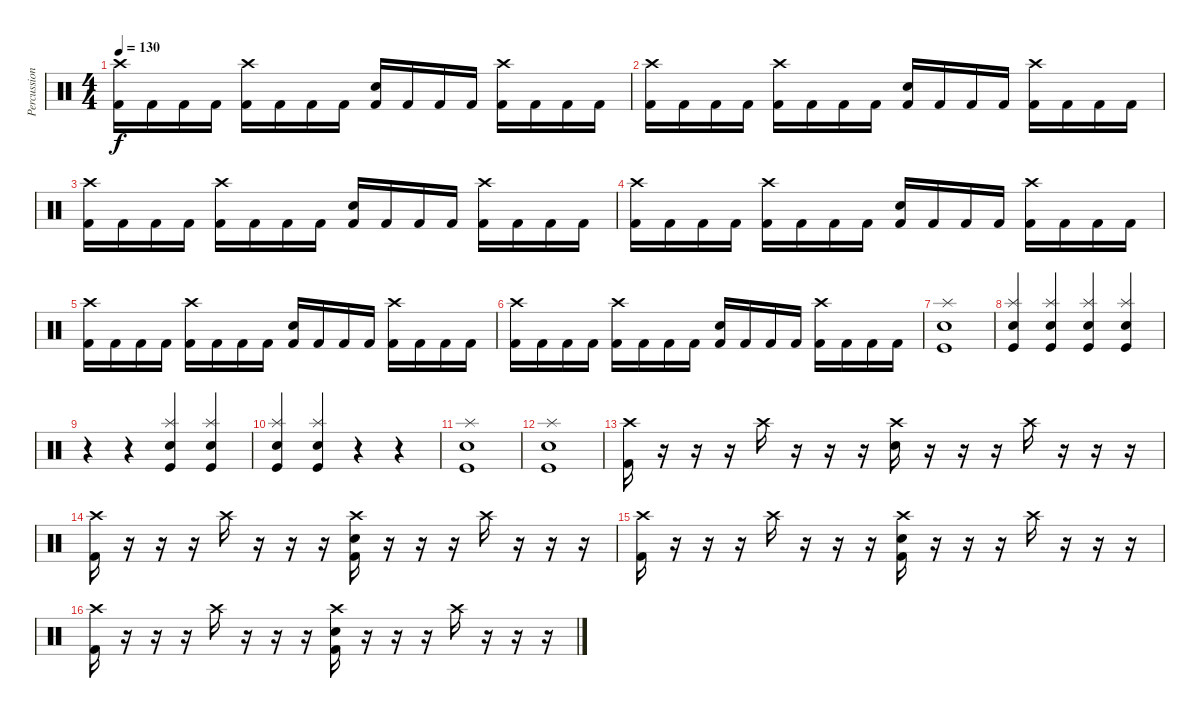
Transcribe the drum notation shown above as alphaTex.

\track ("Percussion" "Percussion") {instrument percussion}
\staff {score}
\articulation defaults
\ts (4 4)
\tempo 130
\clef neutral
\ks c
("Crash high (hit)" "Kick (hit) 2").16{dy f} "Kick (hit) 2".16 "Kick (hit) 2".16 "Kick (hit) 2".16 ("Crash high (hit)" "Kick (hit) 2").16 "Kick (hit) 2".16 "Kick (hit) 2".16 "Kick (hit) 2".16 ("Electric Snare (hit)" "Kick (hit) 2").16 "Kick (hit) 2".16 "Kick (hit) 2".16 "Kick (hit) 2".16 ("Crash high (hit)" "Kick (hit) 2").16 "Kick (hit) 2".16 "Kick (hit) 2".16 "Kick (hit) 2".16 |
("Crash high (hit)" "Kick (hit) 2").16 "Kick (hit) 2".16 "Kick (hit) 2".16 "Kick (hit) 2".16 ("Crash high (hit)" "Kick (hit) 2").16 "Kick (hit) 2".16 "Kick (hit) 2".16 "Kick (hit) 2".16 ("Electric Snare (hit)" "Kick (hit) 2").16 "Kick (hit) 2".16 "Kick (hit) 2".16 "Kick (hit) 2".16 ("Crash high (hit)" "Kick (hit) 2").16 "Kick (hit) 2".16 "Kick (hit) 2".16 "Kick (hit) 2".16 |
("Crash high (hit)" "Kick (hit) 2").16 "Kick (hit) 2".16 "Kick (hit) 2".16 "Kick (hit) 2".16 ("Crash high (hit)" "Kick (hit) 2").16 "Kick (hit) 2".16 "Kick (hit) 2".16 "Kick (hit) 2".16 ("Electric Snare (hit)" "Kick (hit) 2").16 "Kick (hit) 2".16 "Kick (hit) 2".16 "Kick (hit) 2".16 ("Crash high (hit)" "Kick (hit) 2").16 "Kick (hit) 2".16 "Kick (hit) 2".16 "Kick (hit) 2".16 |
("Crash high (hit)" "Kick (hit) 2").16 "Kick (hit) 2".16 "Kick (hit) 2".16 "Kick (hit) 2".16 ("Crash high (hit)" "Kick (hit) 2").16 "Kick (hit) 2".16 "Kick (hit) 2".16 "Kick (hit) 2".16 ("Electric Snare (hit)" "Kick (hit) 2").16 "Kick (hit) 2".16 "Kick (hit) 2".16 "Kick (hit) 2".16 ("Crash high (hit)" "Kick (hit) 2").16 "Kick (hit) 2".16 "Kick (hit) 2".16 "Kick (hit) 2".16 |
("Crash high (hit)" "Kick (hit) 2").16 "Kick (hit) 2".16 "Kick (hit) 2".16 "Kick (hit) 2".16 ("Crash high (hit)" "Kick (hit) 2").16 "Kick (hit) 2".16 "Kick (hit) 2".16 "Kick (hit) 2".16 ("Electric Snare (hit)" "Kick (hit) 2").16 "Kick (hit) 2".16 "Kick (hit) 2".16 "Kick (hit) 2".16 ("Crash high (hit)" "Kick (hit) 2").16 "Kick (hit) 2".16 "Kick (hit) 2".16 "Kick (hit) 2".16 |
("Crash high (hit)" "Kick (hit) 2").16 "Kick (hit) 2".16 "Kick (hit) 2".16 "Kick (hit) 2".16 ("Crash high (hit)" "Kick (hit) 2").16 "Kick (hit) 2".16 "Kick (hit) 2".16 "Kick (hit) 2".16 ("Electric Snare (hit)" "Kick (hit) 2").16 "Kick (hit) 2".16 "Kick (hit) 2".16 "Kick (hit) 2".16 ("Crash high (hit)" "Kick (hit) 2").16 "Kick (hit) 2".16 "Kick (hit) 2".16 "Kick (hit) 2".16 |
("Splash (hit)" "Electric Snare (hit)" "Kick (hit)").1 |
("Splash (hit)" "Electric Snare (hit)" "Kick (hit)").4 ("Splash (hit)" "Electric Snare (hit)" "Kick (hit)").4 ("Splash (hit)" "Electric Snare (hit)" "Kick (hit)").4 ("Splash (hit)" "Electric Snare (hit)" "Kick (hit)").4 |
r.4 r.4 ("Splash (hit)" "Electric Snare (hit)" "Kick (hit)").4 ("Splash (hit)" "Electric Snare (hit)" "Kick (hit)").4 |
("Splash (hit)" "Electric Snare (hit)" "Kick (hit)").4 ("Splash (hit)" "Electric Snare (hit)" "Kick (hit)").4 r.4 r.4 |
("Splash (hit)" "Electric Snare (hit)" "Kick (hit)").1 |
("Splash (hit)" "Electric Snare (hit)" "Kick (hit)").1 |
("Crash high (hit)" "Kick (hit) 2").16 r.16 r.16 r.16 "Crash high (hit)".16 r.16 r.16 r.16 ("Crash high (hit)" "Electric Snare (hit)").16 r.16 r.16 r.16 "Crash high (hit)".16 r.16 r.16 r.16 |
("Crash high (hit)" "Kick (hit) 2").16 r.16 r.16 r.16 "Crash high (hit)".16 r.16 r.16 r.16 ("Crash high (hit)" "Electric Snare (hit)" "Kick (hit) 2").16 r.16 r.16 r.16 "Crash high (hit)".16 r.16 r.16 r.16 |
("Crash high (hit)" "Kick (hit) 2").16 r.16 r.16 r.16 "Crash high (hit)".16 r.16 r.16 r.16 ("Crash high (hit)" "Electric Snare (hit)" "Kick (hit) 2").16 r.16 r.16 r.16 "Crash high (hit)".16 r.16 r.16 r.16 |
("Crash high (hit)" "Kick (hit) 2").16 r.16 r.16 r.16 "Crash high (hit)".16 r.16 r.16 r.16 ("Crash high (hit)" "Electric Snare (hit)" "Kick (hit) 2").16 r.16 r.16 r.16 "Crash high (hit)".16 r.16 r.16 r.16
